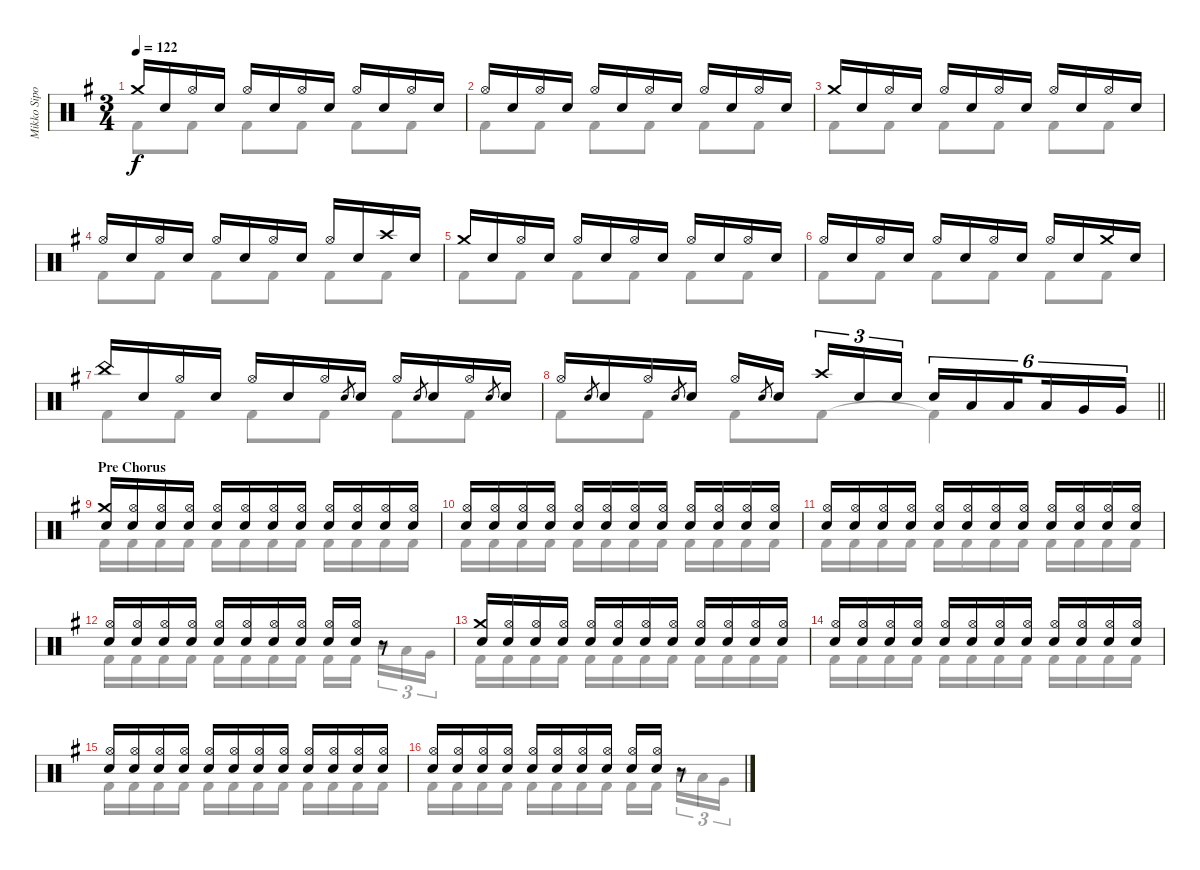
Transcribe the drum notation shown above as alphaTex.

\track ("Mikko Sipola - drums" "Mikko Sipo") {instrument percussion}
\staff {score}
\articulation defaults
\voice
\ts (3 4)
\tempo 122
\clef neutral
\ks eminor "Crash medium (hit)".16{dy f} "Electric Snare (hit)".16 "Hi-Hat (open)".16 "Electric Snare (hit)".16 "Hi-Hat (open)".16 "Electric Snare (hit)".16 "Hi-Hat (open)".16 "Electric Snare (hit)".16 "Hi-Hat (open)".16 "Electric Snare (hit)".16 "Hi-Hat (open)".16 "Electric Snare (hit)".16
|
"Hi-Hat (open)".16 "Electric Snare (hit)".16 "Hi-Hat (open)".16 "Electric Snare (hit)".16 "Hi-Hat (open)".16 "Electric Snare (hit)".16 "Hi-Hat (open)".16 "Electric Snare (hit)".16 "Hi-Hat (open)".16 "Electric Snare (hit)".16 "Hi-Hat (open)".16 "Electric Snare (hit)".16 |
"Crash medium (hit)".16 "Electric Snare (hit)".16 "Hi-Hat (open)".16 "Electric Snare (hit)".16 "Hi-Hat (open)".16 "Electric Snare (hit)".16 "Hi-Hat (open)".16 "Electric Snare (hit)".16 "Hi-Hat (open)".16 "Electric Snare (hit)".16 "Hi-Hat (open)".16 "Electric Snare (hit)".16 |
"Hi-Hat (open)".16 "Electric Snare (hit)".16 "Hi-Hat (open)".16 "Electric Snare (hit)".16 "Hi-Hat (open)".16 "Electric Snare (hit)".16 "Hi-Hat (open)".16 "Electric Snare (hit)".16 "Hi-Hat (open)".16 "Electric Snare (hit)".16 "Crash high (hit)".16 "Electric Snare (hit)".16 |
"Crash medium (hit)".16 "Electric Snare (hit)".16 "Hi-Hat (open)".16 "Electric Snare (hit)".16 "Hi-Hat (open)".16 "Electric Snare (hit)".16 "Hi-Hat (open)".16 "Electric Snare (hit)".16 "Hi-Hat (open)".16 "Electric Snare (hit)".16 "Hi-Hat (open)".16 "Electric Snare (hit)".16 |
"Hi-Hat (open)".16 "Electric Snare (hit)".16 "Hi-Hat (open)".16 "Electric Snare (hit)".16 "Hi-Hat (open)".16 "Electric Snare (hit)".16 "Hi-Hat (open)".16 "Electric Snare (hit)".16 "Hi-Hat (open)".16 "Electric Snare (hit)".16 "Crash medium (hit)".16 "Electric Snare (hit)".16 |
"China (hit)".16 "Electric Snare (hit)".16 "Hi-Hat (open)".16 "Electric Snare (hit)".16 "Hi-Hat (open)".16 "Electric Snare (hit)".16 "Hi-Hat (open)".16 "Electric Snare (hit)".8{gr} "Electric Snare (hit)".16 "Hi-Hat (open)".16 "Electric Snare (hit)".8{gr} "Electric Snare (hit)".16 "Hi-Hat (open)".16 "Electric Snare (hit)".8{gr} "Electric Snare (hit)".16 |
\barLineRight lightlight "Hi-Hat (open)".16 "Electric Snare (hit)".8{gr} "Electric Snare (hit)".16 "Hi-Hat (open)".16 "Electric Snare (hit)".8{gr} "Electric Snare (hit)".16 "Hi-Hat (open)".16 "Electric Snare (hit)".8{gr} "Electric Snare (hit)".16{beam splitsecondary} "Crash high (hit)".16{tu (3 2)} "Electric Snare (hit)".16{tu (3 2)} "Electric Snare (hit)".16{tu (3 2)} "Electric Snare (hit)".16{tu (6 4)} "Low Tom (hit)".16{tu (6 4)} "Low Tom (hit)".16{tu (6 4) beam splitsecondary} "Low Tom (hit)".16{tu (6 4)} "Very Low Tom (hit)".16{tu (6 4)} "Very Low Tom (hit)".16{tu (6 4)}
|
\section ("" "Pre Chorus")
("Crash medium (hit)" "Electric Snare (hit)").16 ("Hi-Hat (open)" "Electric Snare (hit)").16 ("Hi-Hat (open)" "Electric Snare (hit)").16 ("Hi-Hat (open)" "Electric Snare (hit)").16 ("Hi-Hat (open)" "Electric Snare (hit)").16 ("Hi-Hat (open)" "Electric Snare (hit)").16 ("Hi-Hat (open)" "Electric Snare (hit)").16 ("Hi-Hat (open)" "Electric Snare (hit)").16 ("Hi-Hat (open)" "Electric Snare (hit)").16 ("Hi-Hat (open)" "Electric Snare (hit)").16 ("Hi-Hat (open)" "Electric Snare (hit)").16 ("Hi-Hat (open)" "Electric Snare (hit)").16 |
("Hi-Hat (open)" "Electric Snare (hit)").16 ("Hi-Hat (open)" "Electric Snare (hit)").16 ("Hi-Hat (open)" "Electric Snare (hit)").16 ("Hi-Hat (open)" "Electric Snare (hit)").16 ("Hi-Hat (open)" "Electric Snare (hit)").16 ("Hi-Hat (open)" "Electric Snare (hit)").16 ("Hi-Hat (open)" "Electric Snare (hit)").16 ("Hi-Hat (open)" "Electric Snare (hit)").16 ("Hi-Hat (open)" "Electric Snare (hit)").16 ("Hi-Hat (open)" "Electric Snare (hit)").16 ("Hi-Hat (open)" "Electric Snare (hit)").16 ("Hi-Hat (open)" "Electric Snare (hit)").16 |
("Hi-Hat (open)" "Electric Snare (hit)").16 ("Hi-Hat (open)" "Electric Snare (hit)").16 ("Hi-Hat (open)" "Electric Snare (hit)").16 ("Hi-Hat (open)" "Electric Snare (hit)").16 ("Hi-Hat (open)" "Electric Snare (hit)").16 ("Hi-Hat (open)" "Electric Snare (hit)").16 ("Hi-Hat (open)" "Electric Snare (hit)").16 ("Hi-Hat (open)" "Electric Snare (hit)").16 ("Hi-Hat (open)" "Electric Snare (hit)").16 ("Hi-Hat (open)" "Electric Snare (hit)").16 ("Hi-Hat (open)" "Electric Snare (hit)").16 ("Hi-Hat (open)" "Electric Snare (hit)").16 |
("Hi-Hat (open)" "Electric Snare (hit)").16 ("Hi-Hat (open)" "Electric Snare (hit)").16 ("Hi-Hat (open)" "Electric Snare (hit)").16 ("Hi-Hat (open)" "Electric Snare (hit)").16 ("Hi-Hat (open)" "Electric Snare (hit)").16 ("Hi-Hat (open)" "Electric Snare (hit)").16 ("Hi-Hat (open)" "Electric Snare (hit)").16 ("Hi-Hat (open)" "Electric Snare (hit)").16 ("Hi-Hat (open)" "Electric Snare (hit)").16 ("Hi-Hat (open)" "Electric Snare (hit)").16 r.8 |
("Crash medium (hit)" "Electric Snare (hit)").16 ("Hi-Hat (open)" "Electric Snare (hit)").16 ("Hi-Hat (open)" "Electric Snare (hit)").16 ("Hi-Hat (open)" "Electric Snare (hit)").16 ("Hi-Hat (open)" "Electric Snare (hit)").16 ("Hi-Hat (open)" "Electric Snare (hit)").16 ("Hi-Hat (open)" "Electric Snare (hit)").16 ("Hi-Hat (open)" "Electric Snare (hit)").16 ("Hi-Hat (open)" "Electric Snare (hit)").16 ("Hi-Hat (open)" "Electric Snare (hit)").16 ("Hi-Hat (open)" "Electric Snare (hit)").16 ("Hi-Hat (open)" "Electric Snare (hit)").16 |
("Hi-Hat (open)" "Electric Snare (hit)").16 ("Hi-Hat (open)" "Electric Snare (hit)").16 ("Hi-Hat (open)" "Electric Snare (hit)").16 ("Hi-Hat (open)" "Electric Snare (hit)").16 ("Hi-Hat (open)" "Electric Snare (hit)").16 ("Hi-Hat (open)" "Electric Snare (hit)").16 ("Hi-Hat (open)" "Electric Snare (hit)").16 ("Hi-Hat (open)" "Electric Snare (hit)").16 ("Hi-Hat (open)" "Electric Snare (hit)").16 ("Hi-Hat (open)" "Electric Snare (hit)").16 ("Hi-Hat (open)" "Electric Snare (hit)").16 ("Hi-Hat (open)" "Electric Snare (hit)").16 |
("Hi-Hat (open)" "Electric Snare (hit)").16 ("Hi-Hat (open)" "Electric Snare (hit)").16 ("Hi-Hat (open)" "Electric Snare (hit)").16 ("Hi-Hat (open)" "Electric Snare (hit)").16 ("Hi-Hat (open)" "Electric Snare (hit)").16 ("Hi-Hat (open)" "Electric Snare (hit)").16 ("Hi-Hat (open)" "Electric Snare (hit)").16 ("Hi-Hat (open)" "Electric Snare (hit)").16 ("Hi-Hat (open)" "Electric Snare (hit)").16 ("Hi-Hat (open)" "Electric Snare (hit)").16 ("Hi-Hat (open)" "Electric Snare (hit)").16 ("Hi-Hat (open)" "Electric Snare (hit)").16 |
("Hi-Hat (open)" "Electric Snare (hit)").16 ("Hi-Hat (open)" "Electric Snare (hit)").16 ("Hi-Hat (open)" "Electric Snare (hit)").16 ("Hi-Hat (open)" "Electric Snare (hit)").16 ("Hi-Hat (open)" "Electric Snare (hit)").16 ("Hi-Hat (open)" "Electric Snare (hit)").16 ("Hi-Hat (open)" "Electric Snare (hit)").16 ("Hi-Hat (open)" "Electric Snare (hit)").16 ("Hi-Hat (open)" "Electric Snare (hit)").16 ("Hi-Hat (open)" "Electric Snare (hit)").16 r.8
\voice
\clef neutral
\ottava regular
\simile none
\ks eminor "Kick (hit) 2".8{dy f} "Kick (hit) 2".8 "Kick (hit) 2".8 "Kick (hit) 2".8 "Kick (hit) 2".8 "Kick (hit) 2".8
|
"Kick (hit) 2".8 "Kick (hit) 2".8 "Kick (hit) 2".8 "Kick (hit) 2".8 "Kick (hit) 2".8 "Kick (hit) 2".8 |
"Kick (hit) 2".8 "Kick (hit) 2".8 "Kick (hit) 2".8 "Kick (hit) 2".8 "Kick (hit) 2".8 "Kick (hit) 2".8 |
"Kick (hit) 2".8 "Kick (hit) 2".8 "Kick (hit) 2".8 "Kick (hit) 2".8 "Kick (hit) 2".8 "Kick (hit) 2".8 |
"Kick (hit) 2".8 "Kick (hit) 2".8 "Kick (hit) 2".8 "Kick (hit) 2".8 "Kick (hit) 2".8 "Kick (hit) 2".8 |
"Kick (hit) 2".8 "Kick (hit) 2".8 "Kick (hit) 2".8 "Kick (hit) 2".8 "Kick (hit) 2".8 "Kick (hit) 2".8 |
"Kick (hit) 2".8 "Kick (hit) 2".8 "Kick (hit) 2".8 "Kick (hit) 2".8 "Kick (hit) 2".8 "Kick (hit) 2".8 |
\barLineRight lightlight "Kick (hit) 2".8 "Kick (hit) 2".8 "Kick (hit) 2".8 "Kick (hit) 2".8 "Kick (hit) 2"{t}.4
|
"Kick (hit) 2".16 "Kick (hit) 2".16 "Kick (hit) 2".16 "Kick (hit) 2".16 "Kick (hit) 2".16 "Kick (hit) 2".16 "Kick (hit) 2".16 "Kick (hit) 2".16 "Kick (hit) 2".16 "Kick (hit) 2".16 "Kick (hit) 2".16 "Kick (hit) 2".16 |
"Kick (hit) 2".16 "Kick (hit) 2".16 "Kick (hit) 2".16 "Kick (hit) 2".16 "Kick (hit) 2".16 "Kick (hit) 2".16 "Kick (hit) 2".16 "Kick (hit) 2".16 "Kick (hit) 2".16 "Kick (hit) 2".16 "Kick (hit) 2".16 "Kick (hit) 2".16 |
"Kick (hit) 2".16 "Kick (hit) 2".16 "Kick (hit) 2".16 "Kick (hit) 2".16 "Kick (hit) 2".16 "Kick (hit) 2".16 "Kick (hit) 2".16 "Kick (hit) 2".16 "Kick (hit) 2".16 "Kick (hit) 2".16 "Kick (hit) 2".16 "Kick (hit) 2".16 |
"Kick (hit) 2".16 "Kick (hit) 2".16 "Kick (hit) 2".16 "Kick (hit) 2".16 "Kick (hit) 2".16 "Kick (hit) 2".16 "Kick (hit) 2".16 "Kick (hit) 2".16 "Kick (hit) 2".16 "Kick (hit) 2".16{beam splitsecondary} "Mid Tom (hit)".16{tu (3 2)} "Low Tom (hit)".16{tu (3 2)} "Very Low Tom (hit)".16{tu (3 2)} |
"Kick (hit) 2".16 "Kick (hit) 2".16 "Kick (hit) 2".16 "Kick (hit) 2".16 "Kick (hit) 2".16 "Kick (hit) 2".16 "Kick (hit) 2".16 "Kick (hit) 2".16 "Kick (hit) 2".16 "Kick (hit) 2".16 "Kick (hit) 2".16 "Kick (hit) 2".16 |
"Kick (hit) 2".16 "Kick (hit) 2".16 "Kick (hit) 2".16 "Kick (hit) 2".16 "Kick (hit) 2".16 "Kick (hit) 2".16 "Kick (hit) 2".16 "Kick (hit) 2".16 "Kick (hit) 2".16 "Kick (hit) 2".16 "Kick (hit) 2".16 "Kick (hit) 2".16 |
"Kick (hit) 2".16 "Kick (hit) 2".16 "Kick (hit) 2".16 "Kick (hit) 2".16 "Kick (hit) 2".16 "Kick (hit) 2".16 "Kick (hit) 2".16 "Kick (hit) 2".16 "Kick (hit) 2".16 "Kick (hit) 2".16 "Kick (hit) 2".16 "Kick (hit) 2".16 |
"Kick (hit) 2".16 "Kick (hit) 2".16 "Kick (hit) 2".16 "Kick (hit) 2".16 "Kick (hit) 2".16 "Kick (hit) 2".16 "Kick (hit) 2".16 "Kick (hit) 2".16 "Kick (hit) 2".16 "Kick (hit) 2".16{beam splitsecondary} "Mid Tom (hit)".16{tu (3 2)} "Low Tom (hit)".16{tu (3 2)} "Very Low Tom (hit)".16{tu (3 2)}
